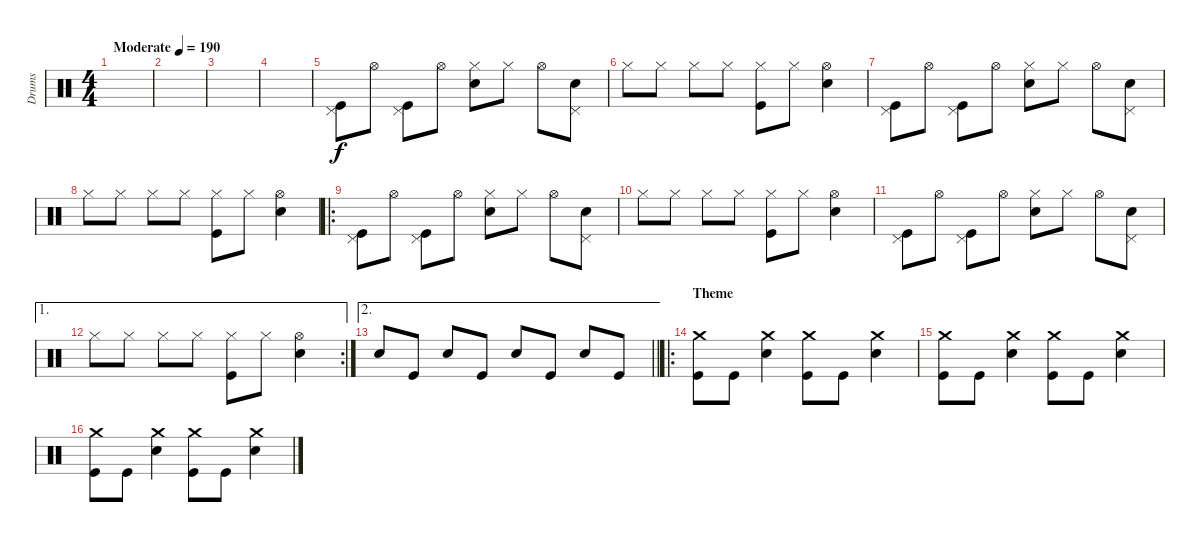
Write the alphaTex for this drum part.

\track ("Drums" "Drums") {instrument percussion}
\staff {score}
\articulation defaults
\ts (4 4)
\tempo (190 "Moderate")
\clef neutral
\ks c
|
|
|
|
("Pedal Hi-Hat (hit)" "Kick (hit)").8 "Hi-Hat (open)".8 ("Pedal Hi-Hat (hit)" "Kick (hit)").8 "Hi-Hat (open)".8 ("Hi-Hat (closed)" "Snare (hit) 2").8 "Hi-Hat (closed)".8 "Hi-Hat (open)".8 ("Pedal Hi-Hat (hit)" "Snare (hit) 2").8 |
"Hi-Hat (closed)".8 "Hi-Hat (closed)".8 "Hi-Hat (closed)".8 "Hi-Hat (closed)".8 ("Hi-Hat (closed)" "Kick (hit)").8 "Hi-Hat (closed)".8 ("Hi-Hat (open)" "Snare (hit) 2").4 |
("Pedal Hi-Hat (hit)" "Kick (hit)").8 "Hi-Hat (open)".8 ("Pedal Hi-Hat (hit)" "Kick (hit)").8 "Hi-Hat (open)".8 ("Hi-Hat (closed)" "Snare (hit) 2").8 "Hi-Hat (closed)".8 "Hi-Hat (open)".8 ("Pedal Hi-Hat (hit)" "Snare (hit) 2").8 |
"Hi-Hat (closed)".8 "Hi-Hat (closed)".8 "Hi-Hat (closed)".8 "Hi-Hat (closed)".8 ("Hi-Hat (closed)" "Kick (hit)").8 "Hi-Hat (closed)".8 ("Hi-Hat (open)" "Snare (hit) 2").4 |
\ro
("Pedal Hi-Hat (hit)" "Kick (hit)").8 "Hi-Hat (open)".8 ("Pedal Hi-Hat (hit)" "Kick (hit)").8 "Hi-Hat (open)".8 ("Hi-Hat (closed)" "Snare (hit) 2").8 "Hi-Hat (closed)".8 "Hi-Hat (open)".8 ("Pedal Hi-Hat (hit)" "Snare (hit) 2").8 |
"Hi-Hat (closed)".8 "Hi-Hat (closed)".8 "Hi-Hat (closed)".8 "Hi-Hat (closed)".8 ("Hi-Hat (closed)" "Kick (hit)").8 "Hi-Hat (closed)".8 ("Hi-Hat (open)" "Snare (hit) 2").4 |
("Pedal Hi-Hat (hit)" "Kick (hit)").8 "Hi-Hat (open)".8 ("Pedal Hi-Hat (hit)" "Kick (hit)").8 "Hi-Hat (open)".8 ("Hi-Hat (closed)" "Snare (hit) 2").8 "Hi-Hat (closed)".8 "Hi-Hat (open)".8 ("Pedal Hi-Hat (hit)" "Snare (hit) 2").8 |
\ae 1
\rc 2 "Hi-Hat (closed)".8 "Hi-Hat (closed)".8 "Hi-Hat (closed)".8 "Hi-Hat (closed)".8
("Hi-Hat (closed)" "Kick (hit)").8 "Hi-Hat (closed)".8 ("Hi-Hat (open)" "Snare (hit) 2").4 |
\ae 2
\barLineRight lightlight "Snare (hit) 2".8 "Kick (hit)".8 "Snare (hit) 2".8 "Kick (hit)".8 "Snare (hit) 2".8 "Kick (hit)".8 "Snare (hit) 2".8 "Kick (hit)".8
|
\ro
\section ("" "Theme")
("Crash medium (hit)" "Kick (hit)").8 "Kick (hit)".8 ("Crash medium (hit)" "Snare (hit) 2").4 ("Crash medium (hit)" "Kick (hit)").8 "Kick (hit)".8 ("Crash medium (hit)" "Snare (hit) 2").4 |
("Crash medium (hit)" "Kick (hit)").8 "Kick (hit)".8 ("Crash medium (hit)" "Snare (hit) 2").4 ("Crash medium (hit)" "Kick (hit)").8 "Kick (hit)".8 ("Crash medium (hit)" "Snare (hit) 2").4 |
("Crash medium (hit)" "Kick (hit)").8 "Kick (hit)".8 ("Crash medium (hit)" "Snare (hit) 2").4 ("Crash medium (hit)" "Kick (hit)").8 "Kick (hit)".8 ("Crash medium (hit)" "Snare (hit) 2").4
